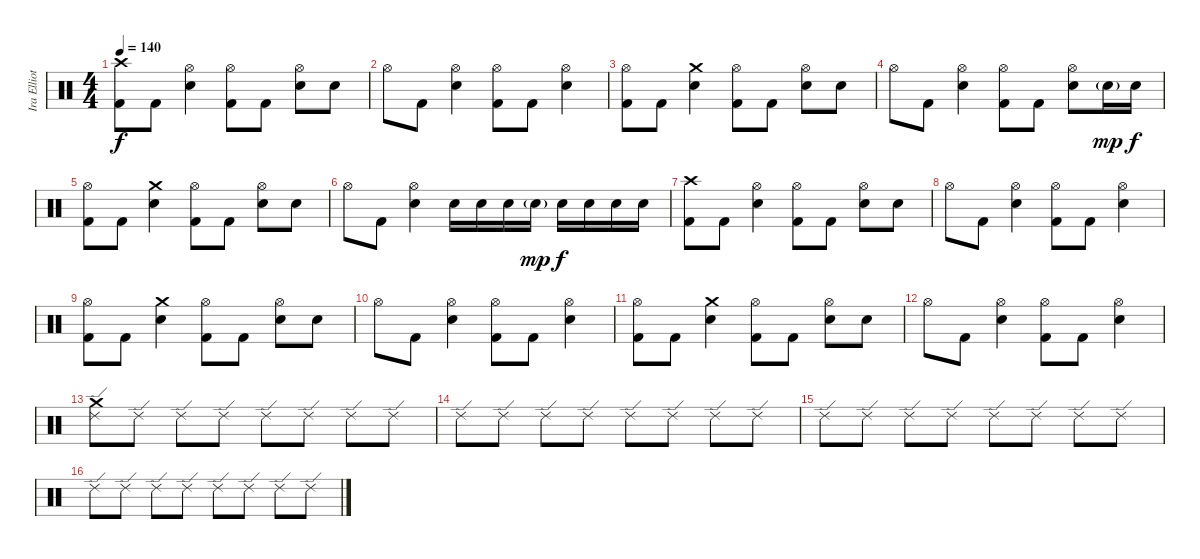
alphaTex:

\track ("Ira Elliott" "Ira Elliot") {instrument percussion}
\staff {score}
\articulation defaults
\ts (4 4)
\tempo 140
\clef neutral
\ks c
("Crash high (hit)" "Kick (hit) 2").8{dy f} "Kick (hit) 2".8 ("Hi-Hat (open)" "Electric Snare (hit)").4 ("Hi-Hat (open)" "Kick (hit) 2").8 "Kick (hit) 2".8 ("Hi-Hat (open)" "Electric Snare (hit)").8 "Electric Snare (hit)".8 |
"Hi-Hat (open)".8 "Kick (hit) 2".8 ("Hi-Hat (open)" "Electric Snare (hit)").4 ("Hi-Hat (open)" "Kick (hit) 2").8 "Kick (hit) 2".8 ("Hi-Hat (open)" "Electric Snare (hit)").4 |
("Hi-Hat (open)" "Kick (hit) 2").8 "Kick (hit) 2".8 ("Crash medium (hit)" "Electric Snare (hit)").4 ("Hi-Hat (open)" "Kick (hit) 2").8 "Kick (hit) 2".8 ("Hi-Hat (open)" "Electric Snare (hit)").8 "Electric Snare (hit)".8 |
"Hi-Hat (open)".8 "Kick (hit) 2".8 ("Hi-Hat (open)" "Electric Snare (hit)").4 ("Hi-Hat (open)" "Kick (hit) 2").8 "Kick (hit) 2".8 ("Hi-Hat (open)" "Electric Snare (hit)").8 "Electric Snare (hit)"{g}.16{dy mp} "Electric Snare (hit)".16{dy f} |
("Hi-Hat (open)" "Kick (hit) 2").8 "Kick (hit) 2".8 ("Crash medium (hit)" "Electric Snare (hit)").4 ("Hi-Hat (open)" "Kick (hit) 2").8 "Kick (hit) 2".8 ("Hi-Hat (open)" "Electric Snare (hit)").8 "Electric Snare (hit)".8 |
"Hi-Hat (open)".8 "Kick (hit) 2".8 ("Hi-Hat (open)" "Electric Snare (hit)").4 "Electric Snare (hit)".16 "Electric Snare (hit)".16 "Electric Snare (hit)".16 "Electric Snare (hit)"{g}.16{dy mp} "Electric Snare (hit)".16{dy f} "Electric Snare (hit)".16 "Electric Snare (hit)".16 "Electric Snare (hit)".16 |
("Crash high (hit)" "Kick (hit) 2").8 "Kick (hit) 2".8 ("Hi-Hat (open)" "Electric Snare (hit)").4 ("Hi-Hat (open)" "Kick (hit) 2").8 "Kick (hit) 2".8 ("Hi-Hat (open)" "Electric Snare (hit)").8 "Electric Snare (hit)".8 |
"Hi-Hat (open)".8 "Kick (hit) 2".8 ("Hi-Hat (open)" "Electric Snare (hit)").4 ("Hi-Hat (open)" "Kick (hit) 2").8 "Kick (hit) 2".8 ("Hi-Hat (open)" "Electric Snare (hit)").4 |
("Hi-Hat (open)" "Kick (hit) 2").8 "Kick (hit) 2".8 ("Crash medium (hit)" "Electric Snare (hit)").4 ("Hi-Hat (open)" "Kick (hit) 2").8 "Kick (hit) 2".8 ("Hi-Hat (open)" "Electric Snare (hit)").8 "Electric Snare (hit)".8 |
"Hi-Hat (open)".8 "Kick (hit) 2".8 ("Hi-Hat (open)" "Electric Snare (hit)").4 ("Hi-Hat (open)" "Kick (hit) 2").8 "Kick (hit) 2".8 ("Hi-Hat (open)" "Electric Snare (hit)").4 |
("Hi-Hat (open)" "Kick (hit) 2").8 "Kick (hit) 2".8 ("Crash medium (hit)" "Electric Snare (hit)").4 ("Hi-Hat (open)" "Kick (hit) 2").8 "Kick (hit) 2".8 ("Hi-Hat (open)" "Electric Snare (hit)").8 "Electric Snare (hit)".8 |
"Hi-Hat (open)".8 "Kick (hit) 2".8 ("Hi-Hat (open)" "Electric Snare (hit)").4 ("Hi-Hat (open)" "Kick (hit) 2").8 "Kick (hit) 2".8 ("Hi-Hat (open)" "Electric Snare (hit)").4 |
("Crash medium (hit)" "Ride (edge) 2").8 "Ride (edge) 2".8 "Ride (edge) 2".8 "Ride (edge) 2".8 "Ride (edge) 2".8 "Ride (edge) 2".8 "Ride (edge) 2".8 "Ride (edge) 2".8 |
"Ride (edge) 2".8 "Ride (edge) 2".8 "Ride (edge) 2".8 "Ride (edge) 2".8 "Ride (edge) 2".8 "Ride (edge) 2".8 "Ride (edge) 2".8 "Ride (edge) 2".8 |
"Ride (edge) 2".8 "Ride (edge) 2".8 "Ride (edge) 2".8 "Ride (edge) 2".8 "Ride (edge) 2".8 "Ride (edge) 2".8 "Ride (edge) 2".8 "Ride (edge) 2".8 |
"Ride (edge) 2".8 "Ride (edge) 2".8 "Ride (edge) 2".8 "Ride (edge) 2".8 "Ride (edge) 2".8 "Ride (edge) 2".8 "Ride (edge) 2".8 "Ride (edge) 2".8
